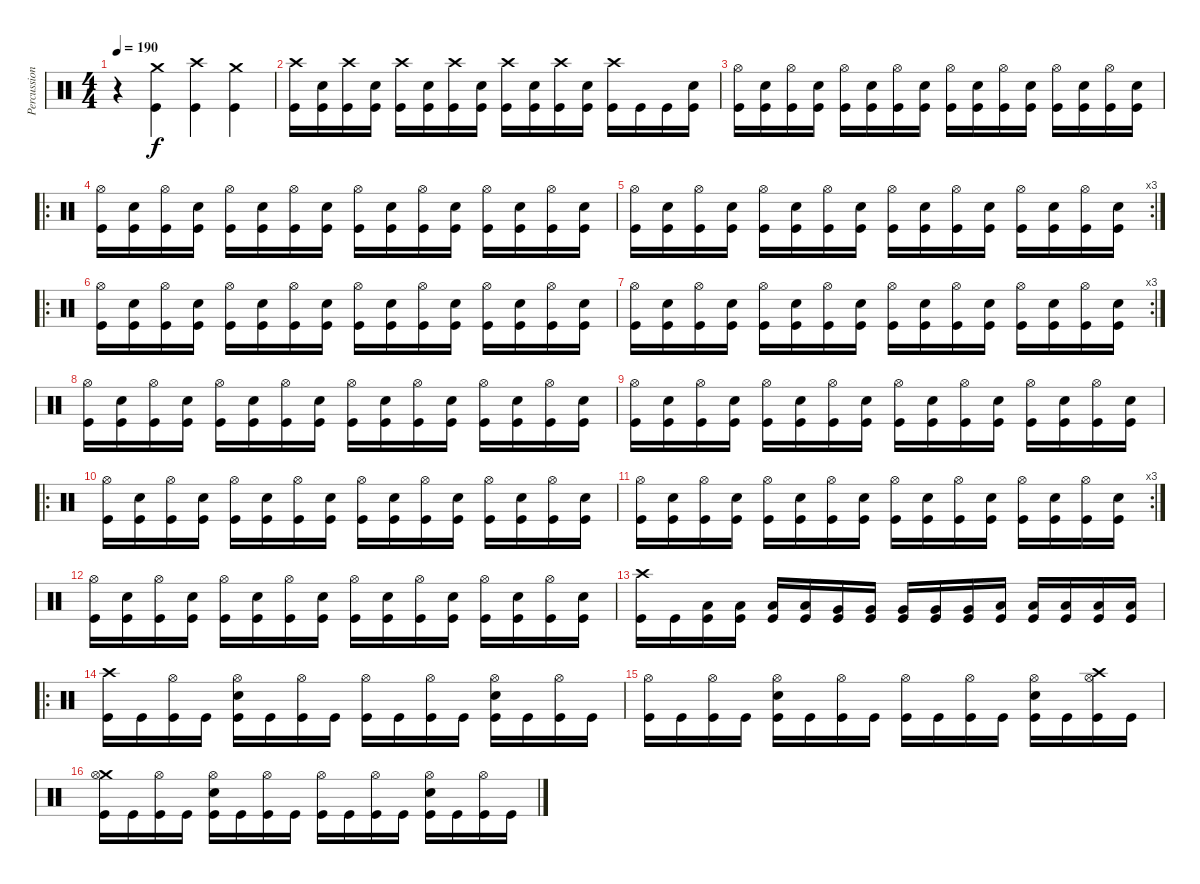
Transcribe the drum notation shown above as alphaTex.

\track ("Percussion" "Percussion") {instrument percussion}
\staff {score}
\articulation defaults
\ts (4 4)
\tempo 190
\clef neutral
\ks c
r.4{dy f} ("Crash medium (hit)" "Kick (hit)").4 ("Crash high (hit)" "Kick (hit)").4 ("Crash medium (hit)" "Kick (hit)").4 |
("Crash high (hit)" "Kick (hit)").16 ("Electric Snare (hit)" "Kick (hit)").16 ("Crash high (hit)" "Kick (hit)").16 ("Electric Snare (hit)" "Kick (hit)").16 ("Crash high (hit)" "Kick (hit)").16 ("Electric Snare (hit)" "Kick (hit)").16 ("Crash high (hit)" "Kick (hit)").16 ("Electric Snare (hit)" "Kick (hit)").16 ("Crash high (hit)" "Kick (hit)").16 ("Electric Snare (hit)" "Kick (hit)").16 ("Crash high (hit)" "Kick (hit)").16 ("Electric Snare (hit)" "Kick (hit)").16 ("Crash high (hit)" "Kick (hit)").16 "Kick (hit)".16 "Kick (hit)".16 ("Electric Snare (hit)" "Kick (hit)").16 |
("Hi-Hat (open)" "Kick (hit)").16 ("Electric Snare (hit)" "Kick (hit)").16 ("Hi-Hat (open)" "Kick (hit)").16 ("Electric Snare (hit)" "Kick (hit)").16 ("Hi-Hat (open)" "Kick (hit)").16 ("Electric Snare (hit)" "Kick (hit)").16 ("Hi-Hat (open)" "Kick (hit)").16 ("Electric Snare (hit)" "Kick (hit)").16 ("Hi-Hat (open)" "Kick (hit)").16 ("Electric Snare (hit)" "Kick (hit)").16 ("Hi-Hat (open)" "Kick (hit)").16 ("Electric Snare (hit)" "Kick (hit)").16 ("Hi-Hat (open)" "Kick (hit)").16 ("Electric Snare (hit)" "Kick (hit)").16 ("Hi-Hat (open)" "Kick (hit)").16 ("Electric Snare (hit)" "Kick (hit)").16 |
\ro
("Hi-Hat (open)" "Kick (hit)").16 ("Electric Snare (hit)" "Kick (hit)").16 ("Hi-Hat (open)" "Kick (hit)").16 ("Electric Snare (hit)" "Kick (hit)").16 ("Hi-Hat (open)" "Kick (hit)").16 ("Electric Snare (hit)" "Kick (hit)").16 ("Hi-Hat (open)" "Kick (hit)").16 ("Electric Snare (hit)" "Kick (hit)").16 ("Hi-Hat (open)" "Kick (hit)").16 ("Electric Snare (hit)" "Kick (hit)").16 ("Hi-Hat (open)" "Kick (hit)").16 ("Electric Snare (hit)" "Kick (hit)").16 ("Hi-Hat (open)" "Kick (hit)").16 ("Electric Snare (hit)" "Kick (hit)").16 ("Hi-Hat (open)" "Kick (hit)").16 ("Electric Snare (hit)" "Kick (hit)").16 |
\rc 3
("Hi-Hat (open)" "Kick (hit)").16 ("Electric Snare (hit)" "Kick (hit)").16 ("Hi-Hat (open)" "Kick (hit)").16 ("Electric Snare (hit)" "Kick (hit)").16 ("Hi-Hat (open)" "Kick (hit)").16 ("Electric Snare (hit)" "Kick (hit)").16 ("Hi-Hat (open)" "Kick (hit)").16 ("Electric Snare (hit)" "Kick (hit)").16 ("Hi-Hat (open)" "Kick (hit)").16 ("Electric Snare (hit)" "Kick (hit)").16 ("Hi-Hat (open)" "Kick (hit)").16 ("Electric Snare (hit)" "Kick (hit)").16 ("Hi-Hat (open)" "Kick (hit)").16 ("Electric Snare (hit)" "Kick (hit)").16 ("Hi-Hat (open)" "Kick (hit)").16 ("Electric Snare (hit)" "Kick (hit)").16 |
\ro
("Hi-Hat (open)" "Kick (hit)").16 ("Electric Snare (hit)" "Kick (hit)").16 ("Hi-Hat (open)" "Kick (hit)").16 ("Electric Snare (hit)" "Kick (hit)").16 ("Hi-Hat (open)" "Kick (hit)").16 ("Electric Snare (hit)" "Kick (hit)").16 ("Hi-Hat (open)" "Kick (hit)").16 ("Electric Snare (hit)" "Kick (hit)").16 ("Hi-Hat (open)" "Kick (hit)").16 ("Electric Snare (hit)" "Kick (hit)").16 ("Hi-Hat (open)" "Kick (hit)").16 ("Electric Snare (hit)" "Kick (hit)").16 ("Hi-Hat (open)" "Kick (hit)").16 ("Electric Snare (hit)" "Kick (hit)").16 ("Hi-Hat (open)" "Kick (hit)").16 ("Electric Snare (hit)" "Kick (hit)").16 |
\rc 3
("Hi-Hat (open)" "Kick (hit)").16 ("Electric Snare (hit)" "Kick (hit)").16 ("Hi-Hat (open)" "Kick (hit)").16 ("Electric Snare (hit)" "Kick (hit)").16 ("Hi-Hat (open)" "Kick (hit)").16 ("Electric Snare (hit)" "Kick (hit)").16 ("Hi-Hat (open)" "Kick (hit)").16 ("Electric Snare (hit)" "Kick (hit)").16 ("Hi-Hat (open)" "Kick (hit)").16 ("Electric Snare (hit)" "Kick (hit)").16 ("Hi-Hat (open)" "Kick (hit)").16 ("Electric Snare (hit)" "Kick (hit)").16 ("Hi-Hat (open)" "Kick (hit)").16 ("Electric Snare (hit)" "Kick (hit)").16 ("Hi-Hat (open)" "Kick (hit)").16 ("Electric Snare (hit)" "Kick (hit)").16 |
("Hi-Hat (open)" "Kick (hit)").16 ("Electric Snare (hit)" "Kick (hit)").16 ("Hi-Hat (open)" "Kick (hit)").16 ("Electric Snare (hit)" "Kick (hit)").16 ("Hi-Hat (open)" "Kick (hit)").16 ("Electric Snare (hit)" "Kick (hit)").16 ("Hi-Hat (open)" "Kick (hit)").16 ("Electric Snare (hit)" "Kick (hit)").16 ("Hi-Hat (open)" "Kick (hit)").16 ("Electric Snare (hit)" "Kick (hit)").16 ("Hi-Hat (open)" "Kick (hit)").16 ("Electric Snare (hit)" "Kick (hit)").16 ("Hi-Hat (open)" "Kick (hit)").16 ("Electric Snare (hit)" "Kick (hit)").16 ("Hi-Hat (open)" "Kick (hit)").16 ("Electric Snare (hit)" "Kick (hit)").16 |
("Hi-Hat (open)" "Kick (hit)").16 ("Electric Snare (hit)" "Kick (hit)").16 ("Hi-Hat (open)" "Kick (hit)").16 ("Electric Snare (hit)" "Kick (hit)").16 ("Hi-Hat (open)" "Kick (hit)").16 ("Electric Snare (hit)" "Kick (hit)").16 ("Hi-Hat (open)" "Kick (hit)").16 ("Electric Snare (hit)" "Kick (hit)").16 ("Hi-Hat (open)" "Kick (hit)").16 ("Electric Snare (hit)" "Kick (hit)").16 ("Hi-Hat (open)" "Kick (hit)").16 ("Electric Snare (hit)" "Kick (hit)").16 ("Hi-Hat (open)" "Kick (hit)").16 ("Electric Snare (hit)" "Kick (hit)").16 ("Hi-Hat (open)" "Kick (hit)").16 ("Electric Snare (hit)" "Kick (hit)").16 |
\ro
("Hi-Hat (open)" "Kick (hit)").16 ("Electric Snare (hit)" "Kick (hit)").16 ("Hi-Hat (open)" "Kick (hit)").16 ("Electric Snare (hit)" "Kick (hit)").16 ("Hi-Hat (open)" "Kick (hit)").16 ("Electric Snare (hit)" "Kick (hit)").16 ("Hi-Hat (open)" "Kick (hit)").16 ("Electric Snare (hit)" "Kick (hit)").16 ("Hi-Hat (open)" "Kick (hit)").16 ("Electric Snare (hit)" "Kick (hit)").16 ("Hi-Hat (open)" "Kick (hit)").16 ("Electric Snare (hit)" "Kick (hit)").16 ("Hi-Hat (open)" "Kick (hit)").16 ("Electric Snare (hit)" "Kick (hit)").16 ("Hi-Hat (open)" "Kick (hit)").16 ("Electric Snare (hit)" "Kick (hit)").16 |
\rc 3
("Hi-Hat (open)" "Kick (hit)").16 ("Electric Snare (hit)" "Kick (hit)").16 ("Hi-Hat (open)" "Kick (hit)").16 ("Electric Snare (hit)" "Kick (hit)").16 ("Hi-Hat (open)" "Kick (hit)").16 ("Electric Snare (hit)" "Kick (hit)").16 ("Hi-Hat (open)" "Kick (hit)").16 ("Electric Snare (hit)" "Kick (hit)").16 ("Hi-Hat (open)" "Kick (hit)").16 ("Electric Snare (hit)" "Kick (hit)").16 ("Hi-Hat (open)" "Kick (hit)").16 ("Electric Snare (hit)" "Kick (hit)").16 ("Hi-Hat (open)" "Kick (hit)").16 ("Electric Snare (hit)" "Kick (hit)").16 ("Hi-Hat (open)" "Kick (hit)").16 ("Electric Snare (hit)" "Kick (hit)").16 |
("Hi-Hat (open)" "Kick (hit)").16 ("Electric Snare (hit)" "Kick (hit)").16 ("Hi-Hat (open)" "Kick (hit)").16 ("Electric Snare (hit)" "Kick (hit)").16 ("Hi-Hat (open)" "Kick (hit)").16 ("Electric Snare (hit)" "Kick (hit)").16 ("Hi-Hat (open)" "Kick (hit)").16 ("Electric Snare (hit)" "Kick (hit)").16 ("Hi-Hat (open)" "Kick (hit)").16 ("Electric Snare (hit)" "Kick (hit)").16 ("Hi-Hat (open)" "Kick (hit)").16 ("Electric Snare (hit)" "Kick (hit)").16 ("Hi-Hat (open)" "Kick (hit)").16 ("Electric Snare (hit)" "Kick (hit)").16 ("Hi-Hat (open)" "Kick (hit)").16 ("Electric Snare (hit)" "Kick (hit)").16 |
("Crash high (hit)" "Kick (hit)").16 "Kick (hit)".16 ("Low Tom (hit)" "Kick (hit)").16 ("Low Tom (hit)" "Kick (hit)").16 ("Low Tom (hit)" "Kick (hit)").16 ("Low Tom (hit)" "Kick (hit)").16 ("Very Low Tom (hit)" "Kick (hit)").16 ("Very Low Tom (hit)" "Kick (hit)").16 ("Very Low Tom (hit)" "Kick (hit)").16 ("Very Low Tom (hit)" "Kick (hit)").16 ("Very Low Tom (hit)" "Kick (hit)").16 ("Low Floor Tom (hit)" "Kick (hit)").16 ("Low Floor Tom (hit)" "Kick (hit)").16 ("Low Floor Tom (hit)" "Kick (hit)").16 ("Low Floor Tom (hit)" "Kick (hit)").16 ("Low Floor Tom (hit)" "Kick (hit)").16 |
\ro
("Crash high (hit)" "Kick (hit)").16 "Kick (hit)".16 ("Hi-Hat (open)" "Kick (hit)").16 "Kick (hit)".16 ("Hi-Hat (open)" "Electric Snare (hit)" "Kick (hit)").16 "Kick (hit)".16 ("Hi-Hat (open)" "Kick (hit)").16 "Kick (hit)".16 ("Hi-Hat (open)" "Kick (hit)").16 "Kick (hit)".16 ("Hi-Hat (open)" "Kick (hit)").16 "Kick (hit)".16 ("Hi-Hat (open)" "Electric Snare (hit)" "Kick (hit)").16 "Kick (hit)".16 ("Hi-Hat (open)" "Kick (hit)").16 "Kick (hit)".16 |
("Hi-Hat (open)" "Kick (hit)").16 "Kick (hit)".16 ("Hi-Hat (open)" "Kick (hit)").16 "Kick (hit)".16 ("Hi-Hat (open)" "Electric Snare (hit)" "Kick (hit)").16 "Kick (hit)".16 ("Hi-Hat (open)" "Kick (hit)").16 "Kick (hit)".16 ("Hi-Hat (open)" "Kick (hit)").16 "Kick (hit)".16 ("Hi-Hat (open)" "Kick (hit)").16 "Kick (hit)".16 ("Hi-Hat (open)" "Electric Snare (hit)" "Kick (hit)").16 "Kick (hit)".16 ("Crash high (hit)" "Hi-Hat (open)" "Kick (hit)").16 "Kick (hit)".16 |
("Crash medium (hit)" "Hi-Hat (open)" "Kick (hit)").16 "Kick (hit)".16 ("Hi-Hat (open)" "Kick (hit)").16 "Kick (hit)".16 ("Hi-Hat (open)" "Electric Snare (hit)" "Kick (hit)").16 "Kick (hit)".16 ("Hi-Hat (open)" "Kick (hit)").16 "Kick (hit)".16 ("Hi-Hat (open)" "Kick (hit)").16 "Kick (hit)".16 ("Hi-Hat (open)" "Kick (hit)").16 "Kick (hit)".16 ("Hi-Hat (open)" "Electric Snare (hit)" "Kick (hit)").16 "Kick (hit)".16 ("Hi-Hat (open)" "Kick (hit)").16 "Kick (hit)".16
